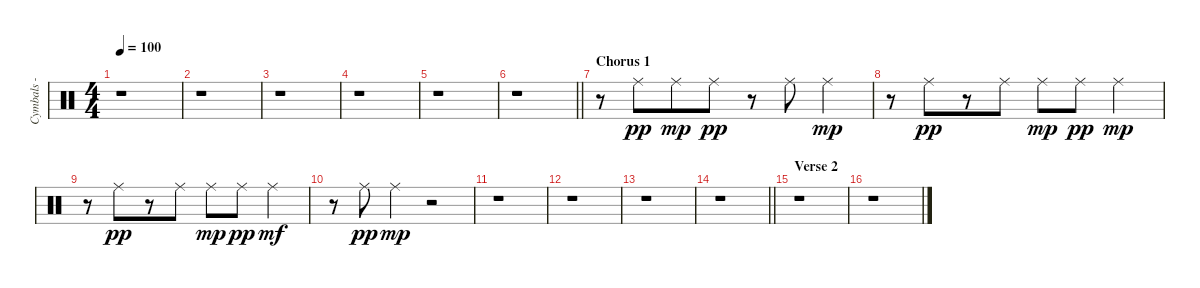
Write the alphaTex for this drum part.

\track ("Cymbals - ride" "Cymbals - ") {instrument percussion}
\staff {score}
\articulation defaults
\ts (4 4)
\tempo 100
\clef neutral
\ks c
r.1{dy pp} |
r.1 |
r.1 |
r.1 |
r.1 |
\barLineRight lightlight
r.1 |
\section ("" "Chorus 1")
r.8 "Ride (middle)".8{beam merge} "Ride (middle)".8{dy mp} "Ride (middle)".8{dy pp} r.8 "Ride (middle)".8 "Ride (middle)".4{dy mp} |
r.8 "Ride (middle)".8{dy pp beam merge} r.8 "Ride (middle)".8 "Ride (middle)".8{dy mp} "Ride (middle)".8{dy pp} "Ride (middle)".4{dy mp} |
r.8 "Ride (middle)".8{dy pp beam merge} r.8 "Ride (middle)".8 "Ride (middle)".8{dy mp} "Ride (middle)".8{dy pp} "Ride (middle)".4{dy mf} |
r.8 "Ride (middle)".8{dy pp} "Ride (middle)".4{dy mp} r.2 |
r.1 |
r.1 |
r.1 |
\barLineRight lightlight
r.1 |
\section ("" "Verse 2")
r.1 |
r.1
